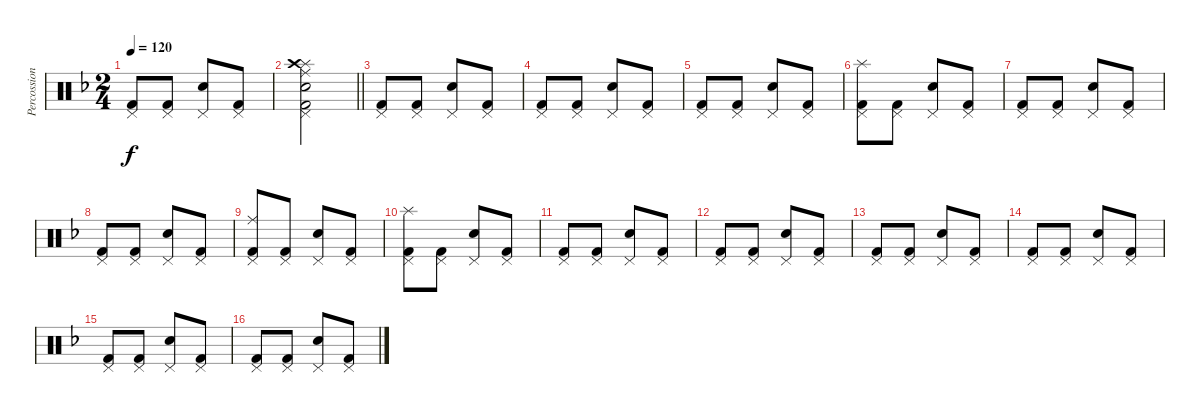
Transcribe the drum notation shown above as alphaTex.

\track ("Percossion" "Percossion") {instrument percussion}
\staff {score}
\articulation defaults
\ts (2 4)
\tempo 120
\clef neutral
\ks f
("Pedal Hi-Hat (hit)" "Kick (hit) 2").8{dy f} ("Pedal Hi-Hat (hit)" "Kick (hit) 2").8 ("Pedal Hi-Hat (hit)" "Snare (hit) 2").8 ("Pedal Hi-Hat (hit)" "Kick (hit) 2").8 |
\barLineRight lightlight
("Pedal Hi-Hat (hit)" "Splash (hit)" "Ride (middle)" "Crash high (hit)" "Snare (hit) 2" "Kick (hit) 2").2 |
("Pedal Hi-Hat (hit)" "Kick (hit) 2").8 ("Pedal Hi-Hat (hit)" "Kick (hit) 2").8 ("Pedal Hi-Hat (hit)" "Snare (hit) 2").8 ("Pedal Hi-Hat (hit)" "Kick (hit) 2").8 |
("Pedal Hi-Hat (hit)" "Kick (hit) 2").8 ("Pedal Hi-Hat (hit)" "Kick (hit) 2").8 ("Pedal Hi-Hat (hit)" "Snare (hit) 2").8 ("Pedal Hi-Hat (hit)" "Kick (hit) 2").8 |
("Pedal Hi-Hat (hit)" "Kick (hit) 2").8 ("Pedal Hi-Hat (hit)" "Kick (hit) 2").8 ("Pedal Hi-Hat (hit)" "Snare (hit) 2").8 ("Pedal Hi-Hat (hit)" "Kick (hit) 2").8 |
("Pedal Hi-Hat (hit)" "Splash (hit)" "Kick (hit) 2").8 ("Pedal Hi-Hat (hit)" "Kick (hit) 2").8 ("Pedal Hi-Hat (hit)" "Snare (hit) 2").8 ("Pedal Hi-Hat (hit)" "Kick (hit) 2").8 |
("Pedal Hi-Hat (hit)" "Kick (hit) 2").8 ("Pedal Hi-Hat (hit)" "Kick (hit) 2").8 ("Pedal Hi-Hat (hit)" "Snare (hit) 2").8 ("Pedal Hi-Hat (hit)" "Kick (hit) 2").8 |
("Pedal Hi-Hat (hit)" "Kick (hit) 2").8 ("Pedal Hi-Hat (hit)" "Kick (hit) 2").8 ("Pedal Hi-Hat (hit)" "Snare (hit) 2").8 ("Pedal Hi-Hat (hit)" "Kick (hit) 2").8 |
("Pedal Hi-Hat (hit)" "Ride (middle)" "Kick (hit) 2").8 ("Pedal Hi-Hat (hit)" "Kick (hit) 2").8 ("Pedal Hi-Hat (hit)" "Snare (hit) 2").8 ("Pedal Hi-Hat (hit)" "Kick (hit) 2").8 |
("Pedal Hi-Hat (hit)" "Splash (hit)" "Kick (hit) 2").8 ("Pedal Hi-Hat (hit)" "Kick (hit) 2").8 ("Pedal Hi-Hat (hit)" "Snare (hit) 2").8 ("Pedal Hi-Hat (hit)" "Kick (hit) 2").8 |
("Pedal Hi-Hat (hit)" "Kick (hit) 2").8 ("Pedal Hi-Hat (hit)" "Kick (hit) 2").8 ("Pedal Hi-Hat (hit)" "Snare (hit) 2").8 ("Pedal Hi-Hat (hit)" "Kick (hit) 2").8 |
("Pedal Hi-Hat (hit)" "Kick (hit) 2").8 ("Pedal Hi-Hat (hit)" "Kick (hit) 2").8 ("Pedal Hi-Hat (hit)" "Snare (hit) 2").8 ("Pedal Hi-Hat (hit)" "Kick (hit) 2").8 |
("Pedal Hi-Hat (hit)" "Kick (hit) 2").8 ("Pedal Hi-Hat (hit)" "Kick (hit) 2").8 ("Pedal Hi-Hat (hit)" "Snare (hit) 2").8 ("Pedal Hi-Hat (hit)" "Kick (hit) 2").8 |
("Pedal Hi-Hat (hit)" "Kick (hit) 2").8 ("Pedal Hi-Hat (hit)" "Kick (hit) 2").8 ("Pedal Hi-Hat (hit)" "Snare (hit) 2").8 ("Pedal Hi-Hat (hit)" "Kick (hit) 2").8 |
("Pedal Hi-Hat (hit)" "Kick (hit) 2").8 ("Pedal Hi-Hat (hit)" "Kick (hit) 2").8 ("Pedal Hi-Hat (hit)" "Snare (hit) 2").8 ("Pedal Hi-Hat (hit)" "Kick (hit) 2").8 |
("Pedal Hi-Hat (hit)" "Kick (hit) 2").8 ("Pedal Hi-Hat (hit)" "Kick (hit) 2").8 ("Pedal Hi-Hat (hit)" "Snare (hit) 2").8 ("Pedal Hi-Hat (hit)" "Kick (hit) 2").8
